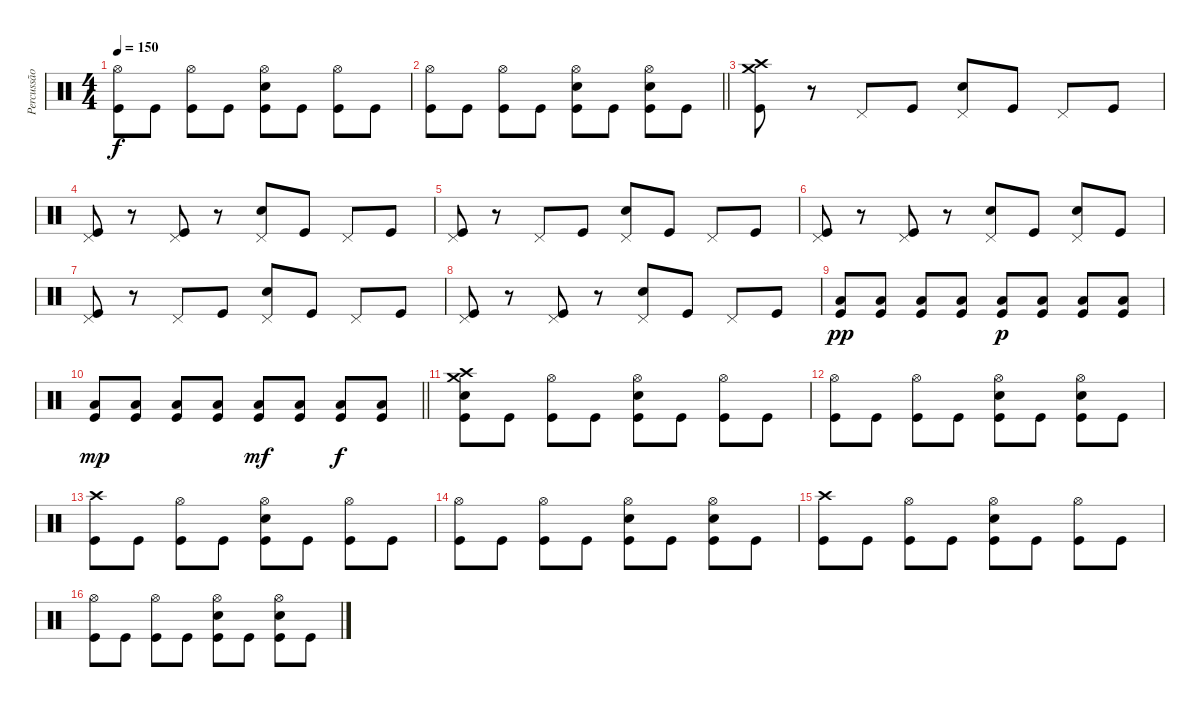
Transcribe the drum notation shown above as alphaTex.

\track ("Percussão" "Percussão") {instrument percussion}
\staff {score}
\articulation defaults
\ts (4 4)
\tempo 150
\clef neutral
\ks c
("Hi-Hat (open)" "Kick (hit)").8{dy f} "Kick (hit)".8 ("Hi-Hat (open)" "Kick (hit)").8 "Kick (hit)".8 ("Hi-Hat (open)" "Snare (hit) 2" "Kick (hit)").8 "Kick (hit)".8 ("Hi-Hat (open)" "Kick (hit)").8 "Kick (hit)".8 |
\barLineRight lightlight
("Hi-Hat (open)" "Kick (hit)").8 "Kick (hit)".8 ("Hi-Hat (open)" "Kick (hit)").8 "Kick (hit)".8 ("Hi-Hat (open)" "Snare (hit) 2" "Kick (hit)").8 "Kick (hit)".8 ("Hi-Hat (open)" "Snare (hit) 2" "Kick (hit)").8 "Kick (hit)".8 |
("Crash high (hit)" "Crash medium (hit)" "Kick (hit)").8 r.8 "Pedal Hi-Hat (hit)".8 "Kick (hit)".8 ("Pedal Hi-Hat (hit)" "Snare (hit) 2").8 "Kick (hit)".8 "Pedal Hi-Hat (hit)".8 "Kick (hit)".8 |
("Pedal Hi-Hat (hit)" "Kick (hit)").8 r.8 ("Pedal Hi-Hat (hit)" "Kick (hit)").8 r.8 ("Pedal Hi-Hat (hit)" "Snare (hit) 2").8 "Kick (hit)".8 "Pedal Hi-Hat (hit)".8 "Kick (hit)".8 |
("Pedal Hi-Hat (hit)" "Kick (hit)").8 r.8 "Pedal Hi-Hat (hit)".8 "Kick (hit)".8 ("Pedal Hi-Hat (hit)" "Snare (hit) 2").8 "Kick (hit)".8 "Pedal Hi-Hat (hit)".8 "Kick (hit)".8 |
("Pedal Hi-Hat (hit)" "Kick (hit)").8 r.8 ("Pedal Hi-Hat (hit)" "Kick (hit)").8 r.8 ("Pedal Hi-Hat (hit)" "Snare (hit) 2").8 "Kick (hit)".8 ("Pedal Hi-Hat (hit)" "Snare (hit) 2").8 "Kick (hit)".8 |
("Pedal Hi-Hat (hit)" "Kick (hit)").8 r.8 "Pedal Hi-Hat (hit)".8 "Kick (hit)".8 ("Pedal Hi-Hat (hit)" "Snare (hit) 2").8 "Kick (hit)".8 "Pedal Hi-Hat (hit)".8 "Kick (hit)".8 |
("Pedal Hi-Hat (hit)" "Kick (hit)").8 r.8 ("Pedal Hi-Hat (hit)" "Kick (hit)").8 r.8 ("Pedal Hi-Hat (hit)" "Snare (hit) 2").8 "Kick (hit)".8 "Pedal Hi-Hat (hit)".8 "Kick (hit)".8 |
("Low Floor Tom (hit)" "Kick (hit)").8{dy pp} ("Low Floor Tom (hit)" "Kick (hit)").8 ("Low Floor Tom (hit)" "Kick (hit)").8 ("Low Floor Tom (hit)" "Kick (hit)").8 ("Low Floor Tom (hit)" "Kick (hit)").8{dy p} ("Low Floor Tom (hit)" "Kick (hit)").8 ("Low Floor Tom (hit)" "Kick (hit)").8 ("Low Floor Tom (hit)" "Kick (hit)").8 |
\barLineRight lightlight
("Low Floor Tom (hit)" "Kick (hit)").8{dy mp} ("Low Floor Tom (hit)" "Kick (hit)").8 ("Low Floor Tom (hit)" "Kick (hit)").8 ("Low Floor Tom (hit)" "Kick (hit)").8 ("Low Floor Tom (hit)" "Kick (hit)").8{dy mf} ("Low Floor Tom (hit)" "Kick (hit)").8 ("Low Floor Tom (hit)" "Kick (hit)").8{dy f} ("Low Floor Tom (hit)" "Kick (hit)").8 |
("Crash high (hit)" "Crash medium (hit)" "Snare (hit) 2" "Kick (hit)").8 "Kick (hit)".8 ("Hi-Hat (open)" "Kick (hit)").8 "Kick (hit)".8 ("Hi-Hat (open)" "Snare (hit) 2" "Kick (hit)").8 "Kick (hit)".8 ("Hi-Hat (open)" "Kick (hit)").8 "Kick (hit)".8 |
("Hi-Hat (open)" "Kick (hit)").8 "Kick (hit)".8 ("Hi-Hat (open)" "Kick (hit)").8 "Kick (hit)".8 ("Hi-Hat (open)" "Snare (hit) 2" "Kick (hit)").8 "Kick (hit)".8 ("Hi-Hat (open)" "Snare (hit) 2" "Kick (hit)").8 "Kick (hit)".8 |
("Crash high (hit)" "Kick (hit)").8 "Kick (hit)".8 ("Hi-Hat (open)" "Kick (hit)").8 "Kick (hit)".8 ("Hi-Hat (open)" "Snare (hit) 2" "Kick (hit)").8 "Kick (hit)".8 ("Hi-Hat (open)" "Kick (hit)").8 "Kick (hit)".8 |
("Hi-Hat (open)" "Kick (hit)").8 "Kick (hit)".8 ("Hi-Hat (open)" "Kick (hit)").8 "Kick (hit)".8 ("Hi-Hat (open)" "Snare (hit) 2" "Kick (hit)").8 "Kick (hit)".8 ("Hi-Hat (open)" "Snare (hit) 2" "Kick (hit)").8 "Kick (hit)".8 |
("Crash high (hit)" "Kick (hit)").8 "Kick (hit)".8 ("Hi-Hat (open)" "Kick (hit)").8 "Kick (hit)".8 ("Hi-Hat (open)" "Snare (hit) 2" "Kick (hit)").8 "Kick (hit)".8 ("Hi-Hat (open)" "Kick (hit)").8 "Kick (hit)".8 |
("Hi-Hat (open)" "Kick (hit)").8 "Kick (hit)".8 ("Hi-Hat (open)" "Kick (hit)").8 "Kick (hit)".8 ("Hi-Hat (open)" "Snare (hit) 2" "Kick (hit)").8 "Kick (hit)".8 ("Hi-Hat (open)" "Snare (hit) 2" "Kick (hit)").8 "Kick (hit)".8
